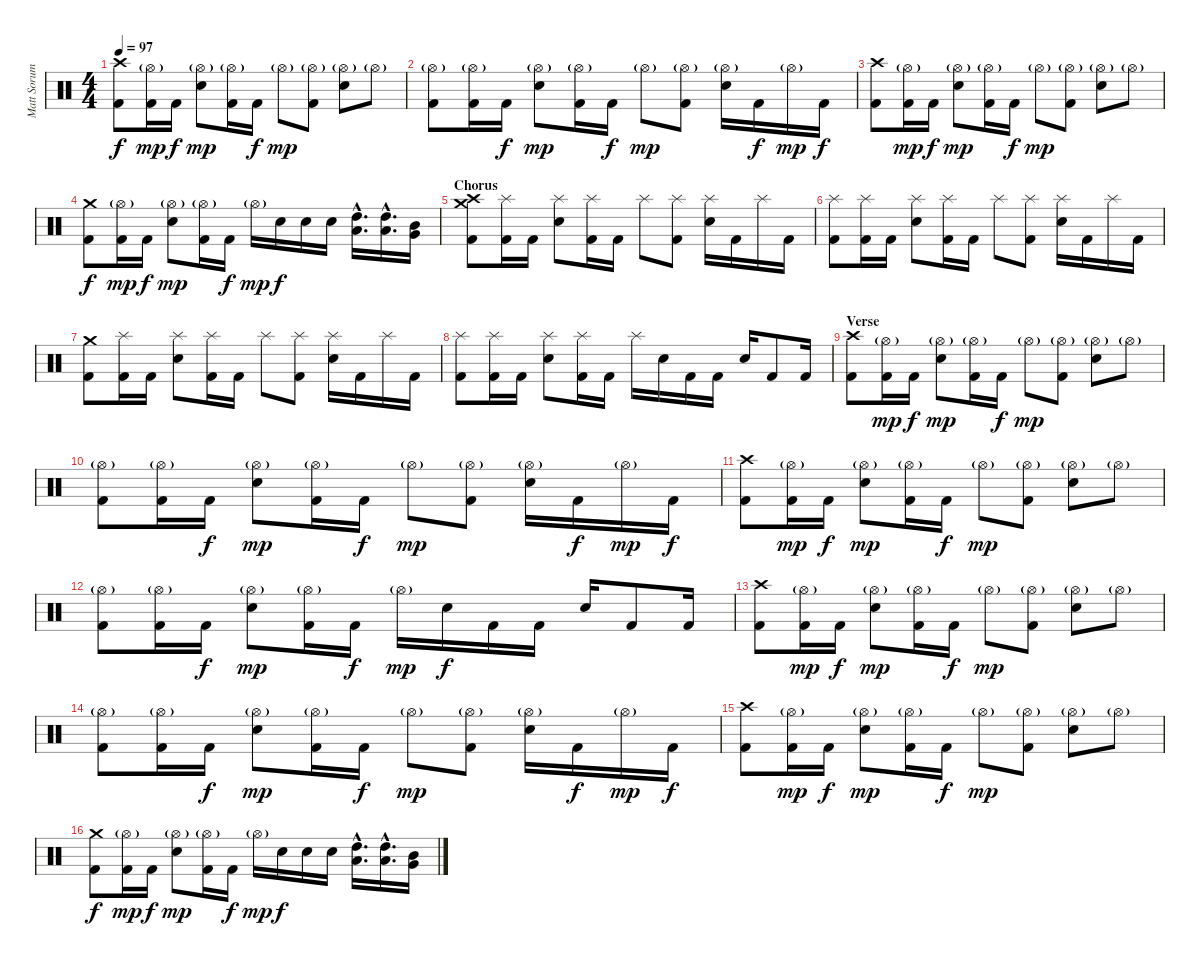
\track ("Matt Sorum" "Matt Sorum") {instrument percussion}
\staff {score}
\articulation defaults
\ts (4 4)
\tempo 97
\clef neutral
\ks c
("Crash high (hit)" "Kick (hit) 2").8{dy f} ("Hi-Hat (open)"{g} "Kick (hit) 2").16{dy mp} "Kick (hit) 2".16{dy f} ("Hi-Hat (open)"{g} "Electric Snare (hit)").8{dy mp} ("Hi-Hat (open)"{g} "Kick (hit) 2").16 "Kick (hit) 2".16{dy f} "Hi-Hat (open)"{g}.8{dy mp} ("Hi-Hat (open)"{g} "Kick (hit) 2").8 ("Hi-Hat (open)"{g} "Electric Snare (hit)").8 "Hi-Hat (open)"{g}.8 |
("Hi-Hat (open)"{g} "Kick (hit) 2").8 ("Hi-Hat (open)"{g} "Kick (hit) 2").16 "Kick (hit) 2".16{dy f} ("Hi-Hat (open)"{g} "Electric Snare (hit)").8{dy mp} ("Hi-Hat (open)"{g} "Kick (hit) 2").16 "Kick (hit) 2".16{dy f} "Hi-Hat (open)"{g}.8{dy mp} ("Hi-Hat (open)"{g} "Kick (hit) 2").8 ("Hi-Hat (open)"{g} "Electric Snare (hit)").16 "Kick (hit) 2".16{dy f} "Hi-Hat (open)"{g}.16{dy mp} "Kick (hit) 2".16{dy f} |
("Crash high (hit)" "Kick (hit) 2").8 ("Hi-Hat (open)"{g} "Kick (hit) 2").16{dy mp} "Kick (hit) 2".16{dy f} ("Hi-Hat (open)"{g} "Electric Snare (hit)").8{dy mp} ("Hi-Hat (open)"{g} "Kick (hit) 2").16 "Kick (hit) 2".16{dy f} "Hi-Hat (open)"{g}.8{dy mp} ("Hi-Hat (open)"{g} "Kick (hit) 2").8 ("Hi-Hat (open)"{g} "Electric Snare (hit)").8 "Hi-Hat (open)"{g}.8 |
("Crash medium (hit)" "Kick (hit) 2").8{dy f} ("Hi-Hat (open)"{g} "Kick (hit) 2").16{dy mp} "Kick (hit) 2".16{dy f} ("Hi-Hat (open)"{g} "Electric Snare (hit)").8{dy mp} ("Hi-Hat (open)"{g} "Kick (hit) 2").16 "Kick (hit) 2".16{dy f} "Hi-Hat (open)"{g}.16{dy mp} "Electric Snare (hit)".16{dy f} "Electric Snare (hit)".16 "Electric Snare (hit)".16 ("High Tom (hit)"{hac} "Low Tom (hit)"{hac}).16{d} ("High Tom (hit)"{hac} "Low Tom (hit)"{hac}).16{d} ("Mid Tom (hit)" "Very Low Tom (hit)").16 |
\section ("" "Chorus")
("Crash medium (hit)" "Crash high (hit)" "Kick (hit) 2").8 ("Splash (hit)" "Kick (hit) 2").16 "Kick (hit) 2".16 ("Splash (hit)" "Electric Snare (hit)").8 ("Splash (hit)" "Kick (hit) 2").16 "Kick (hit) 2".16 "Splash (hit)".8 ("Splash (hit)" "Kick (hit) 2").8 ("Splash (hit)" "Electric Snare (hit)").16 "Kick (hit) 2".16 "Splash (hit)".16 "Kick (hit) 2".16 |
("Splash (hit)" "Kick (hit) 2").8 ("Splash (hit)" "Kick (hit) 2").16 "Kick (hit) 2".16 ("Splash (hit)" "Electric Snare (hit)").8 ("Splash (hit)" "Kick (hit) 2").16 "Kick (hit) 2".16 "Splash (hit)".8 ("Splash (hit)" "Kick (hit) 2").8 ("Splash (hit)" "Electric Snare (hit)").16 "Kick (hit) 2".16 "Splash (hit)".16 "Kick (hit) 2".16 |
("Crash medium (hit)" "Kick (hit) 2").8 ("Splash (hit)" "Kick (hit) 2").16 "Kick (hit) 2".16 ("Splash (hit)" "Electric Snare (hit)").8 ("Splash (hit)" "Kick (hit) 2").16 "Kick (hit) 2".16 "Splash (hit)".8 ("Splash (hit)" "Kick (hit) 2").8 ("Splash (hit)" "Electric Snare (hit)").16 "Kick (hit) 2".16 "Splash (hit)".16 "Kick (hit) 2".16 |
("Splash (hit)" "Kick (hit) 2").8 ("Splash (hit)" "Kick (hit) 2").16 "Kick (hit) 2".16 ("Splash (hit)" "Electric Snare (hit)").8 ("Splash (hit)" "Kick (hit) 2").16 "Kick (hit) 2".16 "Splash (hit)".16 "Electric Snare (hit)".16 "Kick (hit) 2".16 "Kick (hit) 2".16 "Electric Snare (hit)".16 "Kick (hit) 2".8 "Kick (hit) 2".16 |
\section ("" "Verse")
("Crash high (hit)" "Kick (hit) 2").8 ("Hi-Hat (open)"{g} "Kick (hit) 2").16{dy mp} "Kick (hit) 2".16{dy f} ("Hi-Hat (open)"{g} "Electric Snare (hit)").8{dy mp} ("Hi-Hat (open)"{g} "Kick (hit) 2").16 "Kick (hit) 2".16{dy f} "Hi-Hat (open)"{g}.8{dy mp} ("Hi-Hat (open)"{g} "Kick (hit) 2").8 ("Hi-Hat (open)"{g} "Electric Snare (hit)").8 "Hi-Hat (open)"{g}.8 |
("Hi-Hat (open)"{g} "Kick (hit) 2").8 ("Hi-Hat (open)"{g} "Kick (hit) 2").16 "Kick (hit) 2".16{dy f} ("Hi-Hat (open)"{g} "Electric Snare (hit)").8{dy mp} ("Hi-Hat (open)"{g} "Kick (hit) 2").16 "Kick (hit) 2".16{dy f} "Hi-Hat (open)"{g}.8{dy mp} ("Hi-Hat (open)"{g} "Kick (hit) 2").8 ("Hi-Hat (open)"{g} "Electric Snare (hit)").16 "Kick (hit) 2".16{dy f} "Hi-Hat (open)"{g}.16{dy mp} "Kick (hit) 2".16{dy f} |
("Crash high (hit)" "Kick (hit) 2").8 ("Hi-Hat (open)"{g} "Kick (hit) 2").16{dy mp} "Kick (hit) 2".16{dy f} ("Hi-Hat (open)"{g} "Electric Snare (hit)").8{dy mp} ("Hi-Hat (open)"{g} "Kick (hit) 2").16 "Kick (hit) 2".16{dy f} "Hi-Hat (open)"{g}.8{dy mp} ("Hi-Hat (open)"{g} "Kick (hit) 2").8 ("Hi-Hat (open)"{g} "Electric Snare (hit)").8 "Hi-Hat (open)"{g}.8 |
("Hi-Hat (open)"{g} "Kick (hit) 2").8 ("Hi-Hat (open)"{g} "Kick (hit) 2").16 "Kick (hit) 2".16{dy f} ("Hi-Hat (open)"{g} "Electric Snare (hit)").8{dy mp} ("Hi-Hat (open)"{g} "Kick (hit) 2").16 "Kick (hit) 2".16{dy f} "Hi-Hat (open)"{g}.16{dy mp} "Electric Snare (hit)".16{dy f} "Kick (hit) 2".16 "Kick (hit) 2".16 "Electric Snare (hit)".16 "Kick (hit) 2".8 "Kick (hit) 2".16 |
("Crash high (hit)" "Kick (hit) 2").8 ("Hi-Hat (open)"{g} "Kick (hit) 2").16{dy mp} "Kick (hit) 2".16{dy f} ("Hi-Hat (open)"{g} "Electric Snare (hit)").8{dy mp} ("Hi-Hat (open)"{g} "Kick (hit) 2").16 "Kick (hit) 2".16{dy f} "Hi-Hat (open)"{g}.8{dy mp} ("Hi-Hat (open)"{g} "Kick (hit) 2").8 ("Hi-Hat (open)"{g} "Electric Snare (hit)").8 "Hi-Hat (open)"{g}.8 |
("Hi-Hat (open)"{g} "Kick (hit) 2").8 ("Hi-Hat (open)"{g} "Kick (hit) 2").16 "Kick (hit) 2".16{dy f} ("Hi-Hat (open)"{g} "Electric Snare (hit)").8{dy mp} ("Hi-Hat (open)"{g} "Kick (hit) 2").16 "Kick (hit) 2".16{dy f} "Hi-Hat (open)"{g}.8{dy mp} ("Hi-Hat (open)"{g} "Kick (hit) 2").8 ("Hi-Hat (open)"{g} "Electric Snare (hit)").16 "Kick (hit) 2".16{dy f} "Hi-Hat (open)"{g}.16{dy mp} "Kick (hit) 2".16{dy f} |
("Crash high (hit)" "Kick (hit) 2").8 ("Hi-Hat (open)"{g} "Kick (hit) 2").16{dy mp} "Kick (hit) 2".16{dy f} ("Hi-Hat (open)"{g} "Electric Snare (hit)").8{dy mp} ("Hi-Hat (open)"{g} "Kick (hit) 2").16 "Kick (hit) 2".16{dy f} "Hi-Hat (open)"{g}.8{dy mp} ("Hi-Hat (open)"{g} "Kick (hit) 2").8 ("Hi-Hat (open)"{g} "Electric Snare (hit)").8 "Hi-Hat (open)"{g}.8 |
("Crash medium (hit)" "Kick (hit) 2").8{dy f} ("Hi-Hat (open)"{g} "Kick (hit) 2").16{dy mp} "Kick (hit) 2".16{dy f} ("Hi-Hat (open)"{g} "Electric Snare (hit)").8{dy mp} ("Hi-Hat (open)"{g} "Kick (hit) 2").16 "Kick (hit) 2".16{dy f} "Hi-Hat (open)"{g}.16{dy mp} "Electric Snare (hit)".16{dy f} "Electric Snare (hit)".16 "Electric Snare (hit)".16 ("High Tom (hit)"{hac} "Low Tom (hit)"{hac}).16{d} ("High Tom (hit)"{hac} "Low Tom (hit)"{hac}).16{d} ("Mid Tom (hit)" "Very Low Tom (hit)").16
